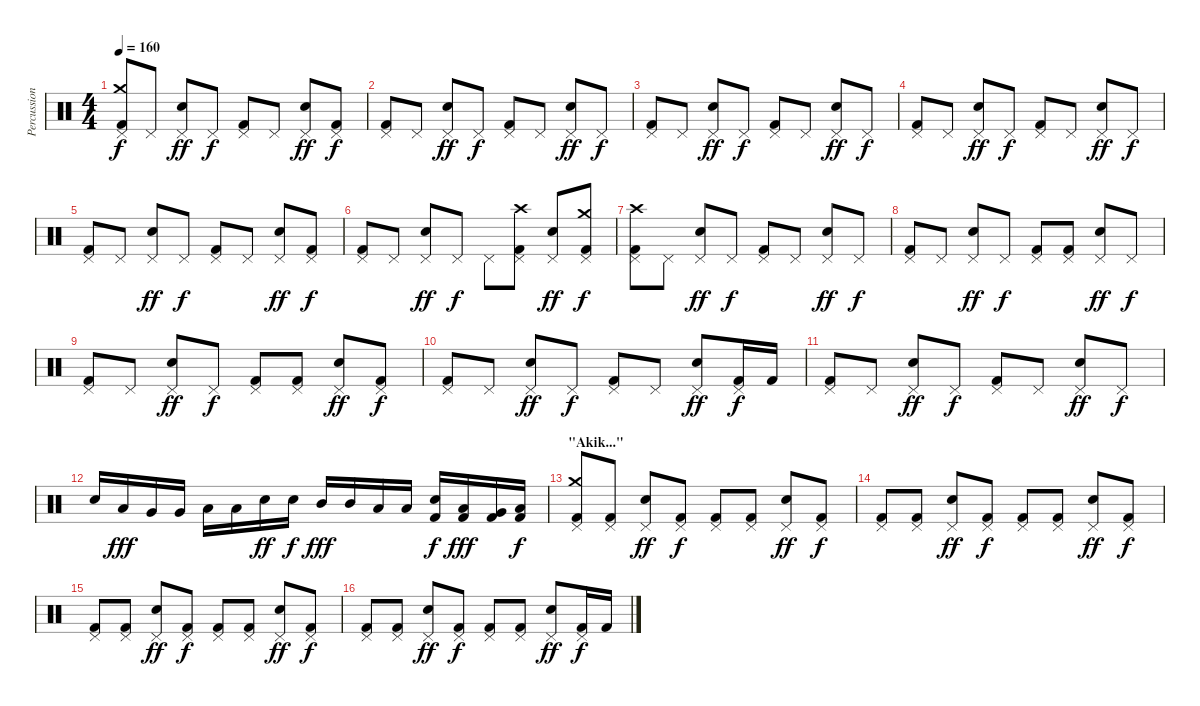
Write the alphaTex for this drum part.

\track ("Percussion" "Percussion") {instrument percussion}
\staff {score}
\articulation defaults
\ts (4 4)
\tempo 160
\clef neutral
\ks c
("Pedal Hi-Hat (hit)" "Crash medium (hit)" "Kick (hit) 2").8{dy f} "Pedal Hi-Hat (hit)".8 ("Pedal Hi-Hat (hit)" "Electric Snare (hit)").8{dy ff} "Pedal Hi-Hat (hit)".8{dy f} ("Pedal Hi-Hat (hit)" "Kick (hit) 2").8 "Pedal Hi-Hat (hit)".8 ("Pedal Hi-Hat (hit)" "Electric Snare (hit)").8{dy ff} ("Pedal Hi-Hat (hit)" "Kick (hit) 2").8{dy f} |
("Pedal Hi-Hat (hit)" "Kick (hit) 2").8 "Pedal Hi-Hat (hit)".8 ("Pedal Hi-Hat (hit)" "Electric Snare (hit)").8{dy ff} "Pedal Hi-Hat (hit)".8{dy f} ("Pedal Hi-Hat (hit)" "Kick (hit) 2").8 "Pedal Hi-Hat (hit)".8 ("Pedal Hi-Hat (hit)" "Electric Snare (hit)").8{dy ff} "Pedal Hi-Hat (hit)".8{dy f} |
("Pedal Hi-Hat (hit)" "Kick (hit) 2").8 "Pedal Hi-Hat (hit)".8 ("Pedal Hi-Hat (hit)" "Electric Snare (hit)").8{dy ff} "Pedal Hi-Hat (hit)".8{dy f} ("Pedal Hi-Hat (hit)" "Kick (hit) 2").8 "Pedal Hi-Hat (hit)".8 ("Pedal Hi-Hat (hit)" "Electric Snare (hit)").8{dy ff} "Pedal Hi-Hat (hit)".8{dy f} |
("Pedal Hi-Hat (hit)" "Kick (hit) 2").8 "Pedal Hi-Hat (hit)".8 ("Pedal Hi-Hat (hit)" "Electric Snare (hit)").8{dy ff} "Pedal Hi-Hat (hit)".8{dy f} ("Pedal Hi-Hat (hit)" "Kick (hit) 2").8 "Pedal Hi-Hat (hit)".8 ("Pedal Hi-Hat (hit)" "Electric Snare (hit)").8{dy ff} "Pedal Hi-Hat (hit)".8{dy f} |
("Pedal Hi-Hat (hit)" "Kick (hit) 2").8 "Pedal Hi-Hat (hit)".8 ("Pedal Hi-Hat (hit)" "Electric Snare (hit)").8{dy ff} "Pedal Hi-Hat (hit)".8{dy f} ("Pedal Hi-Hat (hit)" "Kick (hit) 2").8 "Pedal Hi-Hat (hit)".8 ("Pedal Hi-Hat (hit)" "Electric Snare (hit)").8{dy ff} ("Pedal Hi-Hat (hit)" "Kick (hit) 2").8{dy f} |
("Pedal Hi-Hat (hit)" "Kick (hit) 2").8 "Pedal Hi-Hat (hit)".8 ("Pedal Hi-Hat (hit)" "Electric Snare (hit)").8{dy ff} "Pedal Hi-Hat (hit)".8{dy f} "Pedal Hi-Hat (hit)".8 ("Pedal Hi-Hat (hit)" "Crash high (hit)" "Kick (hit) 2").8 ("Pedal Hi-Hat (hit)" "Electric Snare (hit)").8{dy ff} ("Pedal Hi-Hat (hit)" "Crash medium (hit)" "Kick (hit) 2").8{dy f} |
("Pedal Hi-Hat (hit)" "Crash high (hit)" "Kick (hit) 2").8 "Pedal Hi-Hat (hit)".8 ("Pedal Hi-Hat (hit)" "Electric Snare (hit)").8{dy ff} "Pedal Hi-Hat (hit)".8{dy f} ("Pedal Hi-Hat (hit)" "Kick (hit) 2").8 "Pedal Hi-Hat (hit)".8 ("Pedal Hi-Hat (hit)" "Electric Snare (hit)").8{dy ff} "Pedal Hi-Hat (hit)".8{dy f} |
("Pedal Hi-Hat (hit)" "Kick (hit) 2").8 "Pedal Hi-Hat (hit)".8 ("Pedal Hi-Hat (hit)" "Electric Snare (hit)").8{dy ff} "Pedal Hi-Hat (hit)".8{dy f} ("Pedal Hi-Hat (hit)" "Kick (hit) 2").8 ("Pedal Hi-Hat (hit)" "Kick (hit) 2").8 ("Pedal Hi-Hat (hit)" "Electric Snare (hit)").8{dy ff} "Pedal Hi-Hat (hit)".8{dy f} |
("Pedal Hi-Hat (hit)" "Kick (hit) 2").8 "Pedal Hi-Hat (hit)".8 ("Pedal Hi-Hat (hit)" "Electric Snare (hit)").8{dy ff} "Pedal Hi-Hat (hit)".8{dy f} ("Pedal Hi-Hat (hit)" "Kick (hit) 2").8 ("Pedal Hi-Hat (hit)" "Kick (hit) 2").8 ("Pedal Hi-Hat (hit)" "Electric Snare (hit)").8{dy ff} ("Pedal Hi-Hat (hit)" "Kick (hit) 2").8{dy f} |
("Pedal Hi-Hat (hit)" "Kick (hit) 2").8 "Pedal Hi-Hat (hit)".8 ("Pedal Hi-Hat (hit)" "Electric Snare (hit)").8{dy ff} "Pedal Hi-Hat (hit)".8{dy f} ("Pedal Hi-Hat (hit)" "Kick (hit) 2").8 "Pedal Hi-Hat (hit)".8 ("Pedal Hi-Hat (hit)" "Electric Snare (hit)").8{dy ff} ("Pedal Hi-Hat (hit)" "Kick (hit) 2").16{dy f} "Kick (hit) 2".16 |
("Pedal Hi-Hat (hit)" "Kick (hit) 2").8 "Pedal Hi-Hat (hit)".8 ("Pedal Hi-Hat (hit)" "Electric Snare (hit)").8{dy ff} "Pedal Hi-Hat (hit)".8{dy f} ("Pedal Hi-Hat (hit)" "Kick (hit) 2").8 "Pedal Hi-Hat (hit)".8 ("Pedal Hi-Hat (hit)" "Electric Snare (hit)").8{dy ff} "Pedal Hi-Hat (hit)".8{dy f} |
"Electric Snare (hit)".16 "Low Tom (hit)".16{dy fff} "Very Low Tom (hit)".16 "Very Low Tom (hit)".16 "Low Floor Tom (hit)".16 "Low Floor Tom (hit)".16 "Electric Snare (hit)".16{dy ff} "Electric Snare (hit)".16{dy f} "Mid Tom (hit)".16{dy fff} "Mid Tom (hit)".16 "Low Tom (hit)".16 "Low Tom (hit)".16 ("Kick (hit) 2" "Electric Snare (hit)").16{dy f} ("Kick (hit) 2" "Low Tom (hit)").16{dy fff} ("Kick (hit) 2" "Very Low Tom (hit)").16 ("Kick (hit) 2" "Low Floor Tom (hit)").16{dy f} |
\section ("" "\"Akik...\"")
("Pedal Hi-Hat (hit)" "Crash medium (hit)" "Kick (hit) 2").8 ("Pedal Hi-Hat (hit)" "Kick (hit) 2").8 ("Pedal Hi-Hat (hit)" "Electric Snare (hit)").8{dy ff} ("Pedal Hi-Hat (hit)" "Kick (hit) 2").8{dy f} ("Pedal Hi-Hat (hit)" "Kick (hit) 2").8 ("Pedal Hi-Hat (hit)" "Kick (hit) 2").8 ("Pedal Hi-Hat (hit)" "Electric Snare (hit)").8{dy ff} ("Pedal Hi-Hat (hit)" "Kick (hit) 2").8{dy f} |
("Pedal Hi-Hat (hit)" "Kick (hit) 2").8 ("Pedal Hi-Hat (hit)" "Kick (hit) 2").8 ("Pedal Hi-Hat (hit)" "Electric Snare (hit)").8{dy ff} ("Pedal Hi-Hat (hit)" "Kick (hit) 2").8{dy f} ("Pedal Hi-Hat (hit)" "Kick (hit) 2").8 ("Pedal Hi-Hat (hit)" "Kick (hit) 2").8 ("Pedal Hi-Hat (hit)" "Electric Snare (hit)").8{dy ff} ("Pedal Hi-Hat (hit)" "Kick (hit) 2").8{dy f} |
("Pedal Hi-Hat (hit)" "Kick (hit) 2").8 ("Pedal Hi-Hat (hit)" "Kick (hit) 2").8 ("Pedal Hi-Hat (hit)" "Electric Snare (hit)").8{dy ff} ("Pedal Hi-Hat (hit)" "Kick (hit) 2").8{dy f} ("Pedal Hi-Hat (hit)" "Kick (hit) 2").8 ("Pedal Hi-Hat (hit)" "Kick (hit) 2").8 ("Pedal Hi-Hat (hit)" "Electric Snare (hit)").8{dy ff} ("Pedal Hi-Hat (hit)" "Kick (hit) 2").8{dy f} |
("Pedal Hi-Hat (hit)" "Kick (hit) 2").8 ("Pedal Hi-Hat (hit)" "Kick (hit) 2").8 ("Pedal Hi-Hat (hit)" "Electric Snare (hit)").8{dy ff} ("Pedal Hi-Hat (hit)" "Kick (hit) 2").8{dy f} ("Pedal Hi-Hat (hit)" "Kick (hit) 2").8 ("Pedal Hi-Hat (hit)" "Kick (hit) 2").8 ("Pedal Hi-Hat (hit)" "Electric Snare (hit)").8{dy ff} ("Pedal Hi-Hat (hit)" "Kick (hit) 2").16{dy f} "Kick (hit) 2".16
